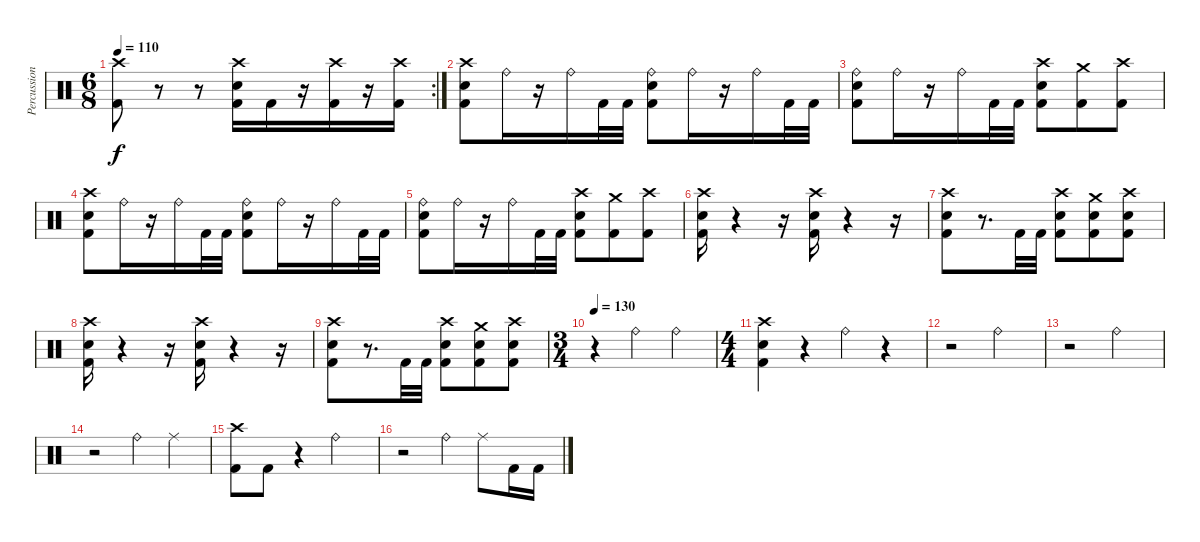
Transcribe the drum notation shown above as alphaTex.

\track ("Percussion" "Percussion") {instrument percussion}
\staff {score}
\articulation defaults
\rc 2
\ts (6 8)
\tempo 110
\clef neutral
\ks c
("Crash high (hit)" "Kick (hit) 2").8{dy f} r.8 r.8 ("Crash high (hit)" "Electric Snare (hit)" "Kick (hit) 2").16 "Kick (hit) 2".16 r.16 ("Crash high (hit)" "Kick (hit) 2").16 r.16 ("Crash high (hit)" "Kick (hit) 2").16 |
("Crash high (hit)" "Electric Snare (hit)" "Kick (hit) 2").8 "Ride (bell)".16 r.16 "Ride (bell)".16 "Kick (hit) 2".32 "Kick (hit) 2".32 ("Ride (bell)" "Electric Snare (hit)" "Kick (hit) 2").8 "Ride (bell)".16 r.16 "Ride (bell)".16 "Kick (hit) 2".32 "Kick (hit) 2".32 |
("Ride (bell)" "Electric Snare (hit)" "Kick (hit) 2").8 "Ride (bell)".16 r.16 "Ride (bell)".16 "Kick (hit) 2".32 "Kick (hit) 2".32 ("Crash high (hit)" "Electric Snare (hit)" "Kick (hit) 2").8 ("Crash medium (hit)" "Kick (hit) 2").8 ("Crash high (hit)" "Kick (hit) 2").8 |
("Crash high (hit)" "Electric Snare (hit)" "Kick (hit) 2").8 "Ride (bell)".16 r.16 "Ride (bell)".16 "Kick (hit) 2".32 "Kick (hit) 2".32 ("Ride (bell)" "Electric Snare (hit)" "Kick (hit) 2").8 "Ride (bell)".16 r.16 "Ride (bell)".16 "Kick (hit) 2".32 "Kick (hit) 2".32 |
("Ride (bell)" "Electric Snare (hit)" "Kick (hit) 2").8 "Ride (bell)".16 r.16 "Ride (bell)".16 "Kick (hit) 2".32 "Kick (hit) 2".32 ("Crash high (hit)" "Electric Snare (hit)" "Kick (hit) 2").8 ("Crash medium (hit)" "Kick (hit) 2").8 ("Crash high (hit)" "Kick (hit) 2").8 |
("Crash high (hit)" "Electric Snare (hit)" "Kick (hit) 2").16 r.4 r.16 ("Crash high (hit)" "Electric Snare (hit)" "Kick (hit) 2").16 r.4 r.16 |
("Crash high (hit)" "Electric Snare (hit)" "Kick (hit) 2").8 r.8{d} "Kick (hit) 2".32 "Kick (hit) 2".32 ("Crash high (hit)" "Electric Snare (hit)" "Kick (hit) 2").8 ("Crash medium (hit)" "Electric Snare (hit)" "Kick (hit) 2").8 ("Crash high (hit)" "Electric Snare (hit)" "Kick (hit) 2").8 |
("Crash high (hit)" "Electric Snare (hit)" "Kick (hit) 2").16 r.4 r.16 ("Crash high (hit)" "Electric Snare (hit)" "Kick (hit) 2").16 r.4 r.16 |
("Crash high (hit)" "Electric Snare (hit)" "Kick (hit) 2").8 r.8{d} "Kick (hit) 2".32 "Kick (hit) 2".32 ("Crash high (hit)" "Electric Snare (hit)" "Kick (hit) 2").8 ("Crash medium (hit)" "Electric Snare (hit)" "Kick (hit) 2").8 ("Crash high (hit)" "Electric Snare (hit)" "Kick (hit) 2").8 |
\ts (3 4)
\tempo 130
r.4 "Ride (bell)".4 "Ride (bell)".4 |
\ts (4 4)
("Crash high (hit)" "Electric Snare (hit)" "Kick (hit) 2").4 r.4 "Ride (bell)".4 r.4 |
r.2 "Ride (bell)".2 |
r.2 "Ride (bell)".2 |
r.2 "Ride (bell)".4 "Ride (middle)".4 |
("Crash high (hit)" "Kick (hit) 2").8 "Kick (hit) 2".8 r.4 "Ride (bell)".2 |
r.2 "Ride (bell)".4 "Ride (middle)".8 "Kick (hit) 2".16 "Kick (hit) 2".16
